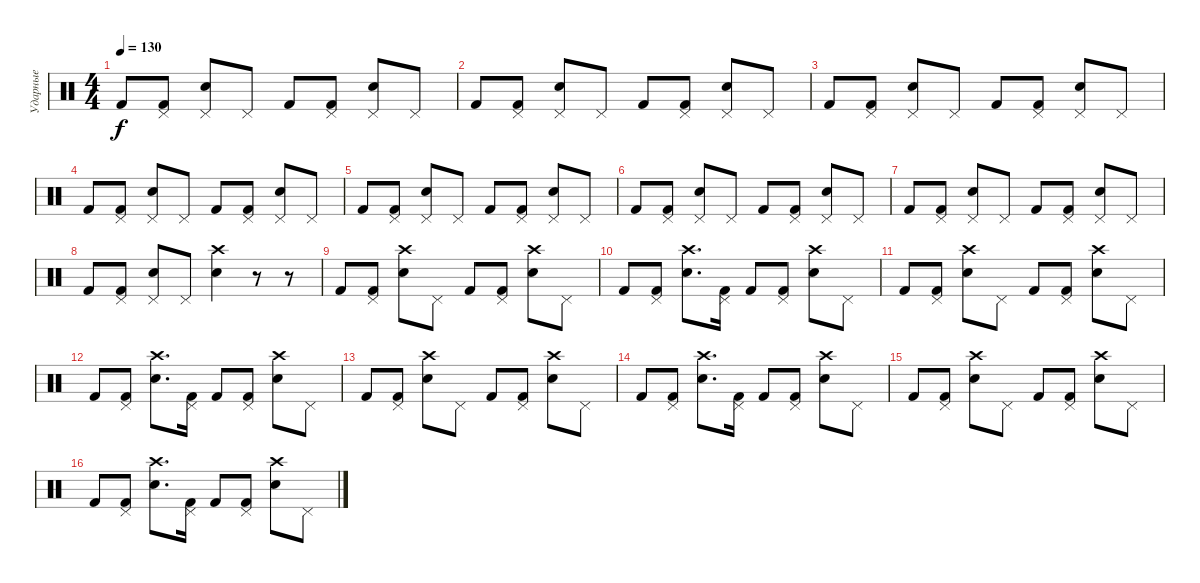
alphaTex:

\track ("Ударные" "Ударные") {instrument percussion}
\staff {score}
\articulation defaults
\ts (4 4)
\tempo 130
\clef neutral
\ks c "Kick (hit) 2".8{dy f}
("Pedal Hi-Hat (hit)" "Kick (hit) 2").8 ("Pedal Hi-Hat (hit)" "Snare (hit) 2").8 "Pedal Hi-Hat (hit)".8 "Kick (hit) 2".8 ("Pedal Hi-Hat (hit)" "Kick (hit) 2").8 ("Pedal Hi-Hat (hit)" "Snare (hit) 2").8 "Pedal Hi-Hat (hit)".8 |
"Kick (hit) 2".8 ("Pedal Hi-Hat (hit)" "Kick (hit) 2").8 ("Pedal Hi-Hat (hit)" "Snare (hit) 2").8 "Pedal Hi-Hat (hit)".8 "Kick (hit) 2".8 ("Pedal Hi-Hat (hit)" "Kick (hit) 2").8 ("Pedal Hi-Hat (hit)" "Snare (hit) 2").8 "Pedal Hi-Hat (hit)".8 |
"Kick (hit) 2".8 ("Pedal Hi-Hat (hit)" "Kick (hit) 2").8 ("Pedal Hi-Hat (hit)" "Snare (hit) 2").8 "Pedal Hi-Hat (hit)".8 "Kick (hit) 2".8 ("Pedal Hi-Hat (hit)" "Kick (hit) 2").8 ("Pedal Hi-Hat (hit)" "Snare (hit) 2").8 "Pedal Hi-Hat (hit)".8 |
"Kick (hit) 2".8 ("Pedal Hi-Hat (hit)" "Kick (hit) 2").8 ("Pedal Hi-Hat (hit)" "Snare (hit) 2").8 "Pedal Hi-Hat (hit)".8 "Kick (hit) 2".8 ("Pedal Hi-Hat (hit)" "Kick (hit) 2").8 ("Pedal Hi-Hat (hit)" "Snare (hit) 2").8 "Pedal Hi-Hat (hit)".8 |
"Kick (hit) 2".8 ("Pedal Hi-Hat (hit)" "Kick (hit) 2").8 ("Pedal Hi-Hat (hit)" "Snare (hit) 2").8 "Pedal Hi-Hat (hit)".8 "Kick (hit) 2".8 ("Pedal Hi-Hat (hit)" "Kick (hit) 2").8 ("Pedal Hi-Hat (hit)" "Snare (hit) 2").8 "Pedal Hi-Hat (hit)".8 |
"Kick (hit) 2".8 ("Pedal Hi-Hat (hit)" "Kick (hit) 2").8 ("Pedal Hi-Hat (hit)" "Snare (hit) 2").8 "Pedal Hi-Hat (hit)".8 "Kick (hit) 2".8 ("Pedal Hi-Hat (hit)" "Kick (hit) 2").8 ("Pedal Hi-Hat (hit)" "Snare (hit) 2").8 "Pedal Hi-Hat (hit)".8 |
"Kick (hit) 2".8 ("Pedal Hi-Hat (hit)" "Kick (hit) 2").8 ("Pedal Hi-Hat (hit)" "Snare (hit) 2").8 "Pedal Hi-Hat (hit)".8 "Kick (hit) 2".8 ("Pedal Hi-Hat (hit)" "Kick (hit) 2").8 ("Pedal Hi-Hat (hit)" "Snare (hit) 2").8 "Pedal Hi-Hat (hit)".8 |
"Kick (hit) 2".8 ("Pedal Hi-Hat (hit)" "Kick (hit) 2").8 ("Pedal Hi-Hat (hit)" "Snare (hit) 2").8 "Pedal Hi-Hat (hit)".8 ("Crash high (hit)" "Snare (hit) 2").4 r.8 r.8 |
"Kick (hit) 2".8 ("Pedal Hi-Hat (hit)" "Kick (hit) 2").8 ("Crash high (hit)" "Snare (hit) 2").8 "Pedal Hi-Hat (hit)".8 "Kick (hit) 2".8 ("Pedal Hi-Hat (hit)" "Kick (hit) 2").8 ("Crash high (hit)" "Snare (hit) 2").8 "Pedal Hi-Hat (hit)".8 |
"Kick (hit) 2".8 ("Pedal Hi-Hat (hit)" "Kick (hit) 2").8 ("Crash high (hit)" "Snare (hit) 2").8{d} ("Pedal Hi-Hat (hit)" "Kick (hit) 2").16 "Kick (hit) 2".8 ("Pedal Hi-Hat (hit)" "Kick (hit) 2").8 ("Crash high (hit)" "Snare (hit) 2").8 "Pedal Hi-Hat (hit)".8 |
"Kick (hit) 2".8 ("Pedal Hi-Hat (hit)" "Kick (hit) 2").8 ("Crash high (hit)" "Snare (hit) 2").8 "Pedal Hi-Hat (hit)".8 "Kick (hit) 2".8 ("Pedal Hi-Hat (hit)" "Kick (hit) 2").8 ("Crash high (hit)" "Snare (hit) 2").8 "Pedal Hi-Hat (hit)".8 |
"Kick (hit) 2".8 ("Pedal Hi-Hat (hit)" "Kick (hit) 2").8 ("Crash high (hit)" "Snare (hit) 2").8{d} ("Pedal Hi-Hat (hit)" "Kick (hit) 2").16 "Kick (hit) 2".8 ("Pedal Hi-Hat (hit)" "Kick (hit) 2").8 ("Crash high (hit)" "Snare (hit) 2").8 "Pedal Hi-Hat (hit)".8 |
"Kick (hit) 2".8 ("Pedal Hi-Hat (hit)" "Kick (hit) 2").8 ("Crash high (hit)" "Snare (hit) 2").8 "Pedal Hi-Hat (hit)".8 "Kick (hit) 2".8 ("Pedal Hi-Hat (hit)" "Kick (hit) 2").8 ("Crash high (hit)" "Snare (hit) 2").8 "Pedal Hi-Hat (hit)".8 |
"Kick (hit) 2".8 ("Pedal Hi-Hat (hit)" "Kick (hit) 2").8 ("Crash high (hit)" "Snare (hit) 2").8{d} ("Pedal Hi-Hat (hit)" "Kick (hit) 2").16 "Kick (hit) 2".8 ("Pedal Hi-Hat (hit)" "Kick (hit) 2").8 ("Crash high (hit)" "Snare (hit) 2").8 "Pedal Hi-Hat (hit)".8 |
"Kick (hit) 2".8 ("Pedal Hi-Hat (hit)" "Kick (hit) 2").8 ("Crash high (hit)" "Snare (hit) 2").8 "Pedal Hi-Hat (hit)".8 "Kick (hit) 2".8 ("Pedal Hi-Hat (hit)" "Kick (hit) 2").8 ("Crash high (hit)" "Snare (hit) 2").8 "Pedal Hi-Hat (hit)".8 |
"Kick (hit) 2".8 ("Pedal Hi-Hat (hit)" "Kick (hit) 2").8 ("Crash high (hit)" "Snare (hit) 2").8{d} ("Pedal Hi-Hat (hit)" "Kick (hit) 2").16 "Kick (hit) 2".8 ("Pedal Hi-Hat (hit)" "Kick (hit) 2").8 ("Crash high (hit)" "Snare (hit) 2").8 "Pedal Hi-Hat (hit)".8
